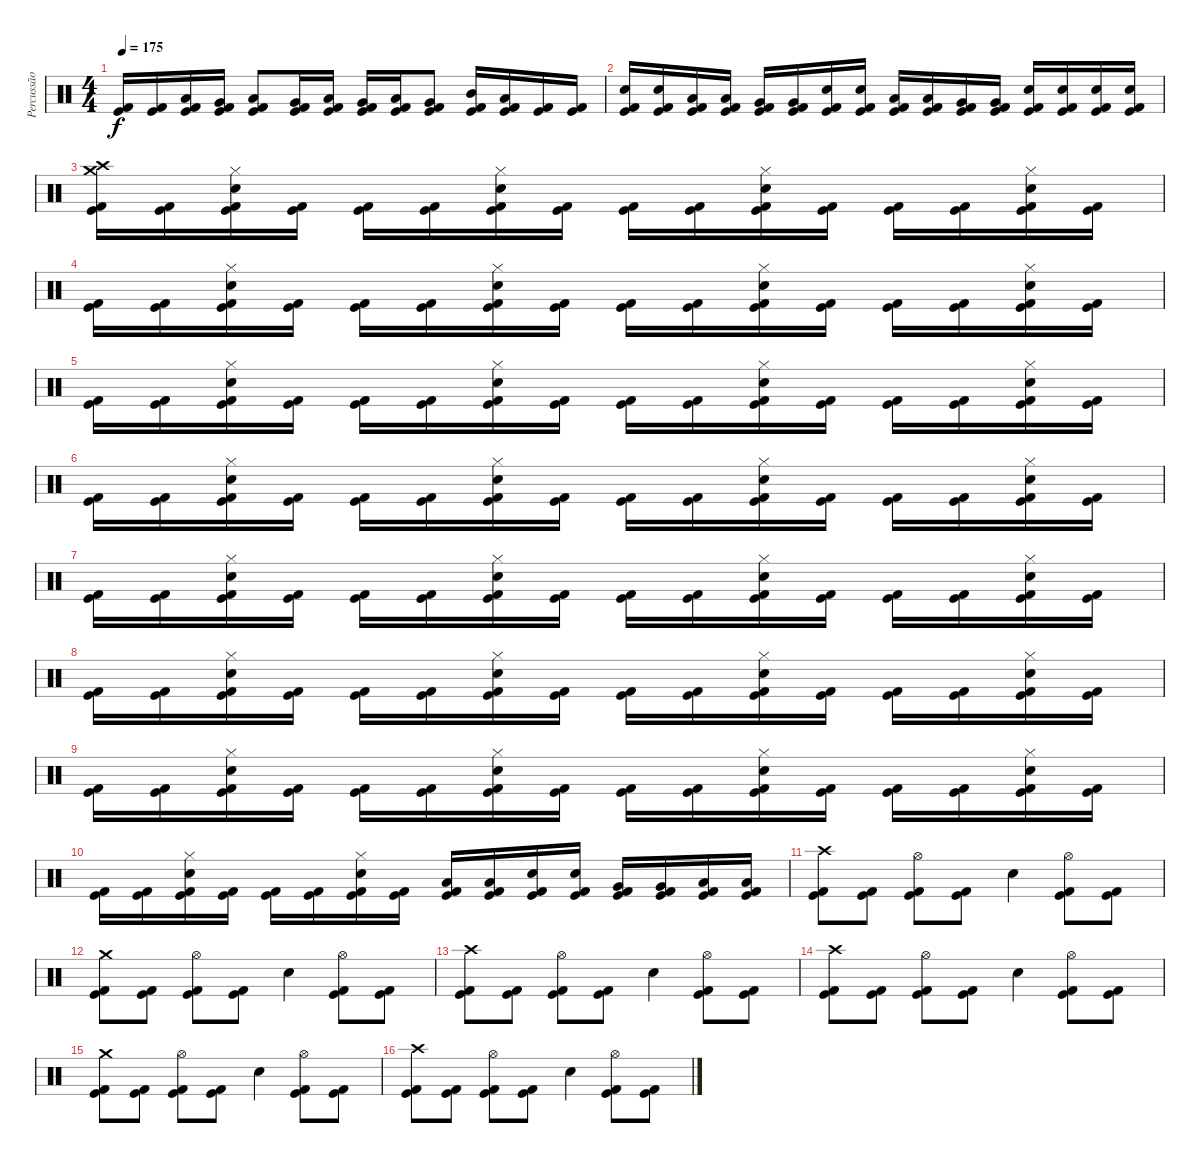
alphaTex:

\track ("Percussão" "Percussão") {instrument percussion}
\staff {score}
\articulation defaults
\ts (4 4)
\tempo 175
\clef neutral
\ks c
("Kick (hit) 2" "Kick (hit)").16{dy f} ("Kick (hit) 2" "Kick (hit)").16 ("Low Tom (hit)" "Kick (hit) 2" "Kick (hit)").16 ("Very Low Tom (hit)" "Kick (hit) 2" "Kick (hit)").16 ("Low Tom (hit)" "Kick (hit) 2" "Kick (hit)").8 ("Very Low Tom (hit)" "Kick (hit) 2" "Kick (hit)").16 ("Low Floor Tom (hit)" "Kick (hit) 2" "Kick (hit)").16 ("Very Low Tom (hit)" "Kick (hit) 2" "Kick (hit)").16 ("Low Tom (hit)" "Kick (hit) 2" "Kick (hit)").16 ("Very Low Tom (hit)" "Kick (hit) 2" "Kick (hit)").8 ("Mid Tom (hit)" "Kick (hit) 2" "Kick (hit)").16 ("Low Tom (hit)" "Kick (hit) 2" "Kick (hit)").16 ("Kick (hit) 2" "Kick (hit)").16 ("Kick (hit) 2" "Kick (hit)").16 |
("Electric Snare (hit)" "Kick (hit)" "Kick (hit) 2").16 ("Electric Snare (hit)" "Kick (hit)" "Kick (hit) 2").16 ("Low Tom (hit)" "Kick (hit)" "Kick (hit) 2").16 ("Low Tom (hit)" "Kick (hit)" "Kick (hit) 2").16 ("Very Low Tom (hit)" "Kick (hit)" "Kick (hit) 2").16 ("Very Low Tom (hit)" "Kick (hit)" "Kick (hit) 2").16 ("Electric Snare (hit)" "Kick (hit)" "Kick (hit) 2").16 ("Electric Snare (hit)" "Kick (hit)" "Kick (hit) 2").16 ("Low Tom (hit)" "Kick (hit)" "Kick (hit) 2").16 ("Low Tom (hit)" "Kick (hit)" "Kick (hit) 2").16 ("Very Low Tom (hit)" "Kick (hit)" "Kick (hit) 2").16 ("Very Low Tom (hit)" "Kick (hit)" "Kick (hit) 2").16 ("Electric Snare (hit)" "Kick (hit)" "Kick (hit) 2").16 ("Electric Snare (hit)" "Kick (hit)" "Kick (hit) 2").16 ("Electric Snare (hit)" "Kick (hit)" "Kick (hit) 2").16 ("Electric Snare (hit)" "Kick (hit)" "Kick (hit) 2").16 |
("Crash high (hit)" "Crash medium (hit)" "Kick (hit)" "Kick (hit) 2").16 ("Kick (hit)" "Kick (hit) 2").16 ("Hi-Hat (closed)" "Electric Snare (hit)" "Kick (hit)" "Kick (hit) 2").16 ("Kick (hit)" "Kick (hit) 2").16 ("Kick (hit)" "Kick (hit) 2").16 ("Kick (hit)" "Kick (hit) 2").16 ("Hi-Hat (closed)" "Electric Snare (hit)" "Kick (hit)" "Kick (hit) 2").16 ("Kick (hit)" "Kick (hit) 2").16 ("Kick (hit)" "Kick (hit) 2").16 ("Kick (hit)" "Kick (hit) 2").16 ("Hi-Hat (closed)" "Electric Snare (hit)" "Kick (hit)" "Kick (hit) 2").16 ("Kick (hit)" "Kick (hit) 2").16 ("Kick (hit)" "Kick (hit) 2").16 ("Kick (hit)" "Kick (hit) 2").16 ("Hi-Hat (closed)" "Electric Snare (hit)" "Kick (hit)" "Kick (hit) 2").16 ("Kick (hit)" "Kick (hit) 2").16 |
("Kick (hit)" "Kick (hit) 2").16 ("Kick (hit)" "Kick (hit) 2").16 ("Hi-Hat (closed)" "Electric Snare (hit)" "Kick (hit)" "Kick (hit) 2").16 ("Kick (hit)" "Kick (hit) 2").16 ("Kick (hit)" "Kick (hit) 2").16 ("Kick (hit)" "Kick (hit) 2").16 ("Hi-Hat (closed)" "Electric Snare (hit)" "Kick (hit)" "Kick (hit) 2").16 ("Kick (hit)" "Kick (hit) 2").16 ("Kick (hit)" "Kick (hit) 2").16 ("Kick (hit)" "Kick (hit) 2").16 ("Hi-Hat (closed)" "Electric Snare (hit)" "Kick (hit)" "Kick (hit) 2").16 ("Kick (hit)" "Kick (hit) 2").16 ("Kick (hit)" "Kick (hit) 2").16 ("Kick (hit)" "Kick (hit) 2").16 ("Hi-Hat (closed)" "Electric Snare (hit)" "Kick (hit)" "Kick (hit) 2").16 ("Kick (hit)" "Kick (hit) 2").16 |
("Kick (hit)" "Kick (hit) 2").16 ("Kick (hit)" "Kick (hit) 2").16 ("Hi-Hat (closed)" "Electric Snare (hit)" "Kick (hit)" "Kick (hit) 2").16 ("Kick (hit)" "Kick (hit) 2").16 ("Kick (hit)" "Kick (hit) 2").16 ("Kick (hit)" "Kick (hit) 2").16 ("Hi-Hat (closed)" "Electric Snare (hit)" "Kick (hit)" "Kick (hit) 2").16 ("Kick (hit)" "Kick (hit) 2").16 ("Kick (hit)" "Kick (hit) 2").16 ("Kick (hit)" "Kick (hit) 2").16 ("Hi-Hat (closed)" "Electric Snare (hit)" "Kick (hit)" "Kick (hit) 2").16 ("Kick (hit)" "Kick (hit) 2").16 ("Kick (hit)" "Kick (hit) 2").16 ("Kick (hit)" "Kick (hit) 2").16 ("Hi-Hat (closed)" "Electric Snare (hit)" "Kick (hit)" "Kick (hit) 2").16 ("Kick (hit)" "Kick (hit) 2").16 |
("Kick (hit)" "Kick (hit) 2").16 ("Kick (hit)" "Kick (hit) 2").16 ("Hi-Hat (closed)" "Electric Snare (hit)" "Kick (hit)" "Kick (hit) 2").16 ("Kick (hit)" "Kick (hit) 2").16 ("Kick (hit)" "Kick (hit) 2").16 ("Kick (hit)" "Kick (hit) 2").16 ("Hi-Hat (closed)" "Electric Snare (hit)" "Kick (hit)" "Kick (hit) 2").16 ("Kick (hit)" "Kick (hit) 2").16 ("Kick (hit)" "Kick (hit) 2").16 ("Kick (hit)" "Kick (hit) 2").16 ("Hi-Hat (closed)" "Electric Snare (hit)" "Kick (hit)" "Kick (hit) 2").16 ("Kick (hit)" "Kick (hit) 2").16 ("Kick (hit)" "Kick (hit) 2").16 ("Kick (hit)" "Kick (hit) 2").16 ("Hi-Hat (closed)" "Electric Snare (hit)" "Kick (hit)" "Kick (hit) 2").16 ("Kick (hit)" "Kick (hit) 2").16 |
("Kick (hit)" "Kick (hit) 2").16 ("Kick (hit)" "Kick (hit) 2").16 ("Hi-Hat (closed)" "Electric Snare (hit)" "Kick (hit)" "Kick (hit) 2").16 ("Kick (hit)" "Kick (hit) 2").16 ("Kick (hit)" "Kick (hit) 2").16 ("Kick (hit)" "Kick (hit) 2").16 ("Hi-Hat (closed)" "Electric Snare (hit)" "Kick (hit)" "Kick (hit) 2").16 ("Kick (hit)" "Kick (hit) 2").16 ("Kick (hit)" "Kick (hit) 2").16 ("Kick (hit)" "Kick (hit) 2").16 ("Hi-Hat (closed)" "Electric Snare (hit)" "Kick (hit)" "Kick (hit) 2").16 ("Kick (hit)" "Kick (hit) 2").16 ("Kick (hit)" "Kick (hit) 2").16 ("Kick (hit)" "Kick (hit) 2").16 ("Hi-Hat (closed)" "Electric Snare (hit)" "Kick (hit)" "Kick (hit) 2").16 ("Kick (hit)" "Kick (hit) 2").16 |
("Kick (hit)" "Kick (hit) 2").16 ("Kick (hit)" "Kick (hit) 2").16 ("Hi-Hat (closed)" "Electric Snare (hit)" "Kick (hit)" "Kick (hit) 2").16 ("Kick (hit)" "Kick (hit) 2").16 ("Kick (hit)" "Kick (hit) 2").16 ("Kick (hit)" "Kick (hit) 2").16 ("Hi-Hat (closed)" "Electric Snare (hit)" "Kick (hit)" "Kick (hit) 2").16 ("Kick (hit)" "Kick (hit) 2").16 ("Kick (hit)" "Kick (hit) 2").16 ("Kick (hit)" "Kick (hit) 2").16 ("Hi-Hat (closed)" "Electric Snare (hit)" "Kick (hit)" "Kick (hit) 2").16 ("Kick (hit)" "Kick (hit) 2").16 ("Kick (hit)" "Kick (hit) 2").16 ("Kick (hit)" "Kick (hit) 2").16 ("Hi-Hat (closed)" "Electric Snare (hit)" "Kick (hit)" "Kick (hit) 2").16 ("Kick (hit)" "Kick (hit) 2").16 |
("Kick (hit)" "Kick (hit) 2").16 ("Kick (hit)" "Kick (hit) 2").16 ("Hi-Hat (closed)" "Electric Snare (hit)" "Kick (hit)" "Kick (hit) 2").16 ("Kick (hit)" "Kick (hit) 2").16 ("Kick (hit)" "Kick (hit) 2").16 ("Kick (hit)" "Kick (hit) 2").16 ("Hi-Hat (closed)" "Electric Snare (hit)" "Kick (hit)" "Kick (hit) 2").16 ("Kick (hit)" "Kick (hit) 2").16 ("Kick (hit)" "Kick (hit) 2").16 ("Kick (hit)" "Kick (hit) 2").16 ("Hi-Hat (closed)" "Electric Snare (hit)" "Kick (hit)" "Kick (hit) 2").16 ("Kick (hit)" "Kick (hit) 2").16 ("Kick (hit)" "Kick (hit) 2").16 ("Kick (hit)" "Kick (hit) 2").16 ("Hi-Hat (closed)" "Electric Snare (hit)" "Kick (hit)" "Kick (hit) 2").16 ("Kick (hit)" "Kick (hit) 2").16 |
("Kick (hit)" "Kick (hit) 2").16 ("Kick (hit)" "Kick (hit) 2").16 ("Hi-Hat (closed)" "Electric Snare (hit)" "Kick (hit)" "Kick (hit) 2").16 ("Kick (hit)" "Kick (hit) 2").16 ("Kick (hit)" "Kick (hit) 2").16 ("Kick (hit)" "Kick (hit) 2").16 ("Hi-Hat (closed)" "Electric Snare (hit)" "Kick (hit)" "Kick (hit) 2").16 ("Kick (hit)" "Kick (hit) 2").16 ("Low Tom (hit)" "Kick (hit)" "Kick (hit) 2").16 ("Low Tom (hit)" "Kick (hit)" "Kick (hit) 2").16 ("Electric Snare (hit)" "Kick (hit)" "Kick (hit) 2").16 ("Electric Snare (hit)" "Kick (hit)" "Kick (hit) 2").16 ("Very Low Tom (hit)" "Kick (hit)" "Kick (hit) 2").16 ("Very Low Tom (hit)" "Kick (hit)" "Kick (hit) 2").16 ("Low Tom (hit)" "Kick (hit)" "Kick (hit) 2").16 ("Low Tom (hit)" "Kick (hit)" "Kick (hit) 2").16 |
("Crash high (hit)" "Kick (hit) 2" "Kick (hit)").8 ("Kick (hit) 2" "Kick (hit)").8 ("Hi-Hat (open)" "Kick (hit) 2" "Kick (hit)").8 ("Kick (hit) 2" "Kick (hit)").8 "Electric Snare (hit)".4 ("Hi-Hat (open)" "Kick (hit) 2" "Kick (hit)").8 ("Kick (hit) 2" "Kick (hit)").8 |
("Crash medium (hit)" "Kick (hit) 2" "Kick (hit)").8 ("Kick (hit) 2" "Kick (hit)").8 ("Hi-Hat (open)" "Kick (hit) 2" "Kick (hit)").8 ("Kick (hit) 2" "Kick (hit)").8 "Electric Snare (hit)".4 ("Hi-Hat (open)" "Kick (hit) 2" "Kick (hit)").8 ("Kick (hit) 2" "Kick (hit)").8 |
("Crash high (hit)" "Kick (hit) 2" "Kick (hit)").8 ("Kick (hit) 2" "Kick (hit)").8 ("Hi-Hat (open)" "Kick (hit) 2" "Kick (hit)").8 ("Kick (hit) 2" "Kick (hit)").8 "Electric Snare (hit)".4 ("Hi-Hat (open)" "Kick (hit) 2" "Kick (hit)").8 ("Kick (hit) 2" "Kick (hit)").8 |
("Crash high (hit)" "Kick (hit) 2" "Kick (hit)").8 ("Kick (hit) 2" "Kick (hit)").8 ("Hi-Hat (open)" "Kick (hit) 2" "Kick (hit)").8 ("Kick (hit) 2" "Kick (hit)").8 "Electric Snare (hit)".4 ("Hi-Hat (open)" "Kick (hit) 2" "Kick (hit)").8 ("Kick (hit) 2" "Kick (hit)").8 |
("Crash medium (hit)" "Kick (hit) 2" "Kick (hit)").8 ("Kick (hit) 2" "Kick (hit)").8 ("Hi-Hat (open)" "Kick (hit) 2" "Kick (hit)").8 ("Kick (hit) 2" "Kick (hit)").8 "Electric Snare (hit)".4 ("Hi-Hat (open)" "Kick (hit) 2" "Kick (hit)").8 ("Kick (hit) 2" "Kick (hit)").8 |
("Crash high (hit)" "Kick (hit) 2" "Kick (hit)").8 ("Kick (hit) 2" "Kick (hit)").8 ("Hi-Hat (open)" "Kick (hit) 2" "Kick (hit)").8 ("Kick (hit) 2" "Kick (hit)").8 "Electric Snare (hit)".4 ("Hi-Hat (open)" "Kick (hit) 2" "Kick (hit)").8 ("Kick (hit) 2" "Kick (hit)").8
